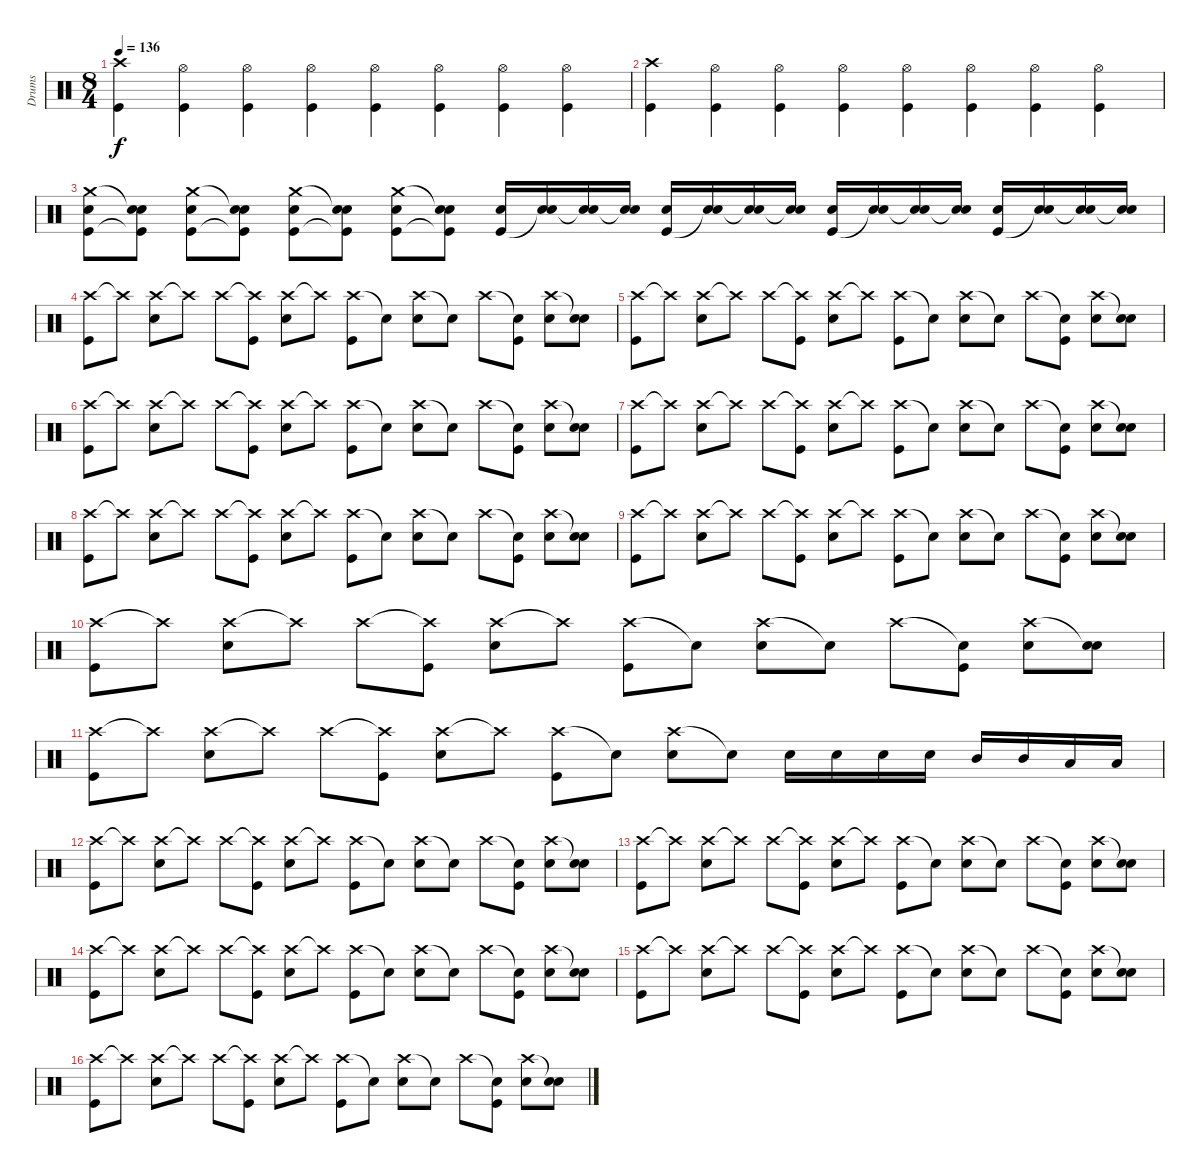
\track ("Drums" "Drums") {instrument percussion}
\staff {score}
\articulation defaults
\ts (8 4)
\tempo 136
\clef neutral
\ks c
("Kick (hit)" "Crash high (hit)").4{dy f} ("Kick (hit)" "Hi-Hat (open)").4 ("Kick (hit)" "Hi-Hat (open)").4 ("Kick (hit)" "Hi-Hat (open)").4 ("Kick (hit)" "Hi-Hat (open)").4 ("Kick (hit)" "Hi-Hat (open)").4 ("Kick (hit)" "Hi-Hat (open)").4 ("Kick (hit)" "Hi-Hat (open)").4 |
("Kick (hit)" "Crash high (hit)").4 ("Kick (hit)" "Hi-Hat (open)").4 ("Kick (hit)" "Hi-Hat (open)").4 ("Kick (hit)" "Hi-Hat (open)").4 ("Kick (hit)" "Hi-Hat (open)").4 ("Kick (hit)" "Hi-Hat (open)").4 ("Kick (hit)" "Hi-Hat (open)").4 ("Kick (hit)" "Hi-Hat (open)").4 |
("Kick (hit)" "Snare (hit) 2" "Crash medium (hit)").8 ("Kick (hit)"{t} "Snare (hit) 2" "Snare (hit)"{t}).8 ("Kick (hit)" "Snare (hit) 2" "Crash medium (hit)").8 ("Kick (hit)"{t} "Snare (hit) 2" "Snare (hit)"{t}).8 ("Kick (hit)" "Snare (hit) 2" "Crash medium (hit)").8 ("Kick (hit)"{t} "Snare (hit) 2" "Snare (hit)"{t}).8 ("Kick (hit)" "Snare (hit) 2" "Crash medium (hit)").8 ("Kick (hit)"{t} "Snare (hit) 2" "Snare (hit)"{t}).8 ("Kick (hit)" "Snare (hit) 2").16 ("Snare (hit)"{t} "Snare (hit) 2").16 ("Snare (hit)"{t} "Snare (hit) 2").16 ("Snare (hit)"{t} "Snare (hit) 2").16 ("Kick (hit)" "Snare (hit) 2").16 ("Snare (hit)"{t} "Snare (hit) 2").16 ("Snare (hit)"{t} "Snare (hit) 2").16 ("Snare (hit)"{t} "Snare (hit) 2").16 ("Kick (hit)" "Snare (hit) 2").16 ("Snare (hit)"{t} "Snare (hit) 2").16 ("Snare (hit)"{t} "Snare (hit) 2").16 ("Snare (hit)"{t} "Snare (hit) 2").16 ("Kick (hit)" "Snare (hit) 2").16 ("Snare (hit)"{t} "Snare (hit) 2").16 ("Snare (hit)"{t} "Snare (hit) 2").16 ("Snare (hit)"{t} "Snare (hit) 2").16 |
("Crash high (hit)" "Kick (hit)").8 "Crash high (hit)"{t}.8 ("Crash high (hit)" "Snare (hit) 2").8 "Crash high (hit)"{t}.8 "Crash high (hit)".8 ("Crash high (hit)"{t} "Kick (hit)").8 ("Crash high (hit)" "Snare (hit) 2").8 "Crash high (hit)"{t}.8 ("Crash high (hit)" "Kick (hit)").8 "Snare (hit)"{t}.8 ("Crash high (hit)" "Snare (hit) 2").8 "Snare (hit)"{t}.8 "Crash high (hit)".8 ("Snare (hit)"{t} "Kick (hit)").8 ("Crash high (hit)" "Snare (hit) 2").8 ("Snare (hit)"{t} "Snare (hit) 2").8 |
("Crash high (hit)" "Kick (hit)").8 "Crash high (hit)"{t}.8 ("Crash high (hit)" "Snare (hit) 2").8 "Crash high (hit)"{t}.8 "Crash high (hit)".8 ("Crash high (hit)"{t} "Kick (hit)").8 ("Crash high (hit)" "Snare (hit) 2").8 "Crash high (hit)"{t}.8 ("Crash high (hit)" "Kick (hit)").8 "Snare (hit)"{t}.8 ("Crash high (hit)" "Snare (hit) 2").8 "Snare (hit)"{t}.8 "Crash high (hit)".8 ("Snare (hit)"{t} "Kick (hit)").8 ("Crash high (hit)" "Snare (hit) 2").8 ("Snare (hit)"{t} "Snare (hit) 2").8 |
("Crash high (hit)" "Kick (hit)").8 "Crash high (hit)"{t}.8 ("Crash high (hit)" "Snare (hit) 2").8 "Crash high (hit)"{t}.8 "Crash high (hit)".8 ("Crash high (hit)"{t} "Kick (hit)").8 ("Crash high (hit)" "Snare (hit) 2").8 "Crash high (hit)"{t}.8 ("Crash high (hit)" "Kick (hit)").8 "Snare (hit)"{t}.8 ("Crash high (hit)" "Snare (hit) 2").8 "Snare (hit)"{t}.8 "Crash high (hit)".8 ("Snare (hit)"{t} "Kick (hit)").8 ("Crash high (hit)" "Snare (hit) 2").8 ("Snare (hit)"{t} "Snare (hit) 2").8 |
("Crash high (hit)" "Kick (hit)").8 "Crash high (hit)"{t}.8 ("Crash high (hit)" "Snare (hit) 2").8 "Crash high (hit)"{t}.8 "Crash high (hit)".8 ("Crash high (hit)"{t} "Kick (hit)").8 ("Crash high (hit)" "Snare (hit) 2").8 "Crash high (hit)"{t}.8 ("Crash high (hit)" "Kick (hit)").8 "Snare (hit)"{t}.8 ("Crash high (hit)" "Snare (hit) 2").8 "Snare (hit)"{t}.8 "Crash high (hit)".8 ("Snare (hit)"{t} "Kick (hit)").8 ("Crash high (hit)" "Snare (hit) 2").8 ("Snare (hit)"{t} "Snare (hit) 2").8 |
("Crash high (hit)" "Kick (hit)").8 "Crash high (hit)"{t}.8 ("Crash high (hit)" "Snare (hit) 2").8 "Crash high (hit)"{t}.8 "Crash high (hit)".8 ("Crash high (hit)"{t} "Kick (hit)").8 ("Crash high (hit)" "Snare (hit) 2").8 "Crash high (hit)"{t}.8 ("Crash high (hit)" "Kick (hit)").8 "Snare (hit)"{t}.8 ("Crash high (hit)" "Snare (hit) 2").8 "Snare (hit)"{t}.8 "Crash high (hit)".8 ("Snare (hit)"{t} "Kick (hit)").8 ("Crash high (hit)" "Snare (hit) 2").8 ("Snare (hit)"{t} "Snare (hit) 2").8 |
("Crash high (hit)" "Kick (hit)").8 "Crash high (hit)"{t}.8 ("Crash high (hit)" "Snare (hit) 2").8 "Crash high (hit)"{t}.8 "Crash high (hit)".8 ("Crash high (hit)"{t} "Kick (hit)").8 ("Crash high (hit)" "Snare (hit) 2").8 "Crash high (hit)"{t}.8 ("Crash high (hit)" "Kick (hit)").8 "Snare (hit)"{t}.8 ("Crash high (hit)" "Snare (hit) 2").8 "Snare (hit)"{t}.8 "Crash high (hit)".8 ("Snare (hit)"{t} "Kick (hit)").8 ("Crash high (hit)" "Snare (hit) 2").8 ("Snare (hit)"{t} "Snare (hit) 2").8 |
("Crash high (hit)" "Kick (hit)").8 "Crash high (hit)"{t}.8 ("Crash high (hit)" "Snare (hit) 2").8 "Crash high (hit)"{t}.8 "Crash high (hit)".8 ("Crash high (hit)"{t} "Kick (hit)").8 ("Crash high (hit)" "Snare (hit) 2").8 "Crash high (hit)"{t}.8 ("Crash high (hit)" "Kick (hit)").8 "Snare (hit)"{t}.8 ("Crash high (hit)" "Snare (hit) 2").8 "Snare (hit)"{t}.8 "Crash high (hit)".8 ("Snare (hit)"{t} "Kick (hit)").8 ("Crash high (hit)" "Snare (hit) 2").8 ("Snare (hit)"{t} "Snare (hit) 2").8 |
("Crash high (hit)" "Kick (hit)").8 "Crash high (hit)"{t}.8 ("Crash high (hit)" "Snare (hit) 2").8 "Crash high (hit)"{t}.8 "Crash high (hit)".8 ("Crash high (hit)"{t} "Kick (hit)").8 ("Crash high (hit)" "Snare (hit) 2").8 "Crash high (hit)"{t}.8 ("Crash high (hit)" "Kick (hit)").8 "Snare (hit)"{t}.8 ("Crash high (hit)" "Snare (hit) 2").8 "Snare (hit)"{t}.8 "Snare (hit) 2".16 "Snare (hit) 2".16 "Snare (hit) 2".16 "Snare (hit) 2".16 "Mid Tom (hit)".16 "Mid Tom (hit)".16 "Low Tom (hit)".16 "Low Floor Tom (hit)".16 |
("Crash high (hit)" "Kick (hit)").8 "Crash high (hit)"{t}.8 ("Crash high (hit)" "Snare (hit) 2").8 "Crash high (hit)"{t}.8 "Crash high (hit)".8 ("Crash high (hit)"{t} "Kick (hit)").8 ("Crash high (hit)" "Snare (hit) 2").8 "Crash high (hit)"{t}.8 ("Crash high (hit)" "Kick (hit)").8 "Snare (hit)"{t}.8 ("Crash high (hit)" "Snare (hit) 2").8 "Snare (hit)"{t}.8 "Crash high (hit)".8 ("Snare (hit)"{t} "Kick (hit)").8 ("Crash high (hit)" "Snare (hit) 2").8 ("Snare (hit)"{t} "Snare (hit) 2").8 |
("Crash high (hit)" "Kick (hit)").8 "Crash high (hit)"{t}.8 ("Crash high (hit)" "Snare (hit) 2").8 "Crash high (hit)"{t}.8 "Crash high (hit)".8 ("Crash high (hit)"{t} "Kick (hit)").8 ("Crash high (hit)" "Snare (hit) 2").8 "Crash high (hit)"{t}.8 ("Crash high (hit)" "Kick (hit)").8 "Snare (hit)"{t}.8 ("Crash high (hit)" "Snare (hit) 2").8 "Snare (hit)"{t}.8 "Crash high (hit)".8 ("Snare (hit)"{t} "Kick (hit)").8 ("Crash high (hit)" "Snare (hit) 2").8 ("Snare (hit)"{t} "Snare (hit) 2").8 |
("Crash high (hit)" "Kick (hit)").8 "Crash high (hit)"{t}.8 ("Crash high (hit)" "Snare (hit) 2").8 "Crash high (hit)"{t}.8 "Crash high (hit)".8 ("Crash high (hit)"{t} "Kick (hit)").8 ("Crash high (hit)" "Snare (hit) 2").8 "Crash high (hit)"{t}.8 ("Crash high (hit)" "Kick (hit)").8 "Snare (hit)"{t}.8 ("Crash high (hit)" "Snare (hit) 2").8 "Snare (hit)"{t}.8 "Crash high (hit)".8 ("Snare (hit)"{t} "Kick (hit)").8 ("Crash high (hit)" "Snare (hit) 2").8 ("Snare (hit)"{t} "Snare (hit) 2").8 |
("Crash high (hit)" "Kick (hit)").8 "Crash high (hit)"{t}.8 ("Crash high (hit)" "Snare (hit) 2").8 "Crash high (hit)"{t}.8 "Crash high (hit)".8 ("Crash high (hit)"{t} "Kick (hit)").8 ("Crash high (hit)" "Snare (hit) 2").8 "Crash high (hit)"{t}.8 ("Crash high (hit)" "Kick (hit)").8 "Snare (hit)"{t}.8 ("Crash high (hit)" "Snare (hit) 2").8 "Snare (hit)"{t}.8 "Crash high (hit)".8 ("Snare (hit)"{t} "Kick (hit)").8 ("Crash high (hit)" "Snare (hit) 2").8 ("Snare (hit)"{t} "Snare (hit) 2").8 |
("Crash high (hit)" "Kick (hit)").8 "Crash high (hit)"{t}.8 ("Crash high (hit)" "Snare (hit) 2").8 "Crash high (hit)"{t}.8 "Crash high (hit)".8 ("Crash high (hit)"{t} "Kick (hit)").8 ("Crash high (hit)" "Snare (hit) 2").8 "Crash high (hit)"{t}.8 ("Crash high (hit)" "Kick (hit)").8 "Snare (hit)"{t}.8 ("Crash high (hit)" "Snare (hit) 2").8 "Snare (hit)"{t}.8 "Crash high (hit)".8 ("Snare (hit)"{t} "Kick (hit)").8 ("Crash high (hit)" "Snare (hit) 2").8 ("Snare (hit)"{t} "Snare (hit) 2").8
